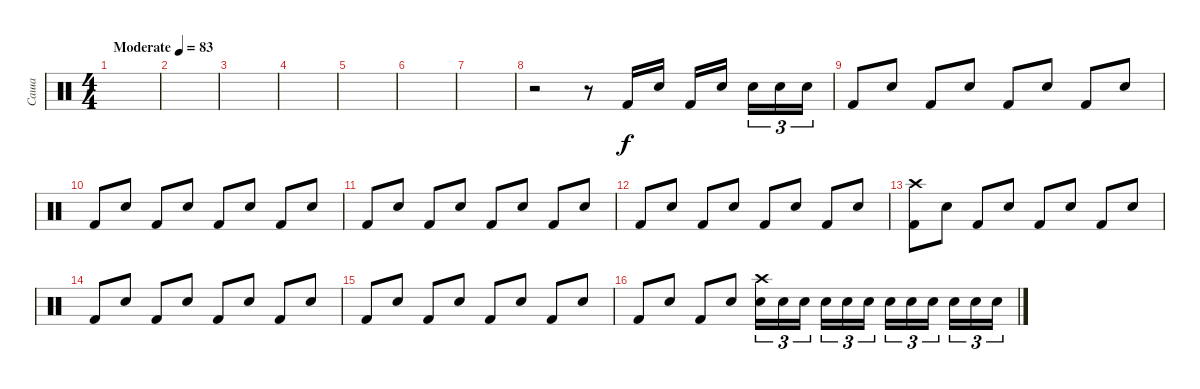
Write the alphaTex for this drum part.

\track ("Саша" "Саша") {instrument percussion}
\staff {score}
\articulation defaults
\ts (4 4)
\tempo (83 "Moderate")
\clef neutral
\ks c
|
|
|
|
|
|
|
r.2 r.8 "Kick (hit) 2".16 "Snare (hit) 2".16 "Kick (hit) 2".16 "Snare (hit) 2".16{beam splitsecondary} "Snare (hit) 2".16{tu (3 2)} "Snare (hit) 2".16{tu (3 2)} "Snare (hit) 2".16{tu (3 2)} |
"Kick (hit) 2".8 "Snare (hit) 2".8 "Kick (hit) 2".8 "Snare (hit) 2".8 "Kick (hit) 2".8 "Snare (hit) 2".8 "Kick (hit) 2".8 "Snare (hit) 2".8 |
"Kick (hit) 2".8 "Snare (hit) 2".8 "Kick (hit) 2".8 "Snare (hit) 2".8 "Kick (hit) 2".8 "Snare (hit) 2".8 "Kick (hit) 2".8 "Snare (hit) 2".8 |
"Kick (hit) 2".8 "Snare (hit) 2".8 "Kick (hit) 2".8 "Snare (hit) 2".8 "Kick (hit) 2".8 "Snare (hit) 2".8 "Kick (hit) 2".8 "Snare (hit) 2".8 |
"Kick (hit) 2".8 "Snare (hit) 2".8 "Kick (hit) 2".8 "Snare (hit) 2".8 "Kick (hit) 2".8 "Snare (hit) 2".8 "Kick (hit) 2".8 "Snare (hit) 2".8 |
("Kick (hit) 2" "Crash high (hit)").8 "Snare (hit) 2".8 "Kick (hit) 2".8 "Snare (hit) 2".8 "Kick (hit) 2".8 "Snare (hit) 2".8 "Kick (hit) 2".8 "Snare (hit) 2".8 |
"Kick (hit) 2".8 "Snare (hit) 2".8 "Kick (hit) 2".8 "Snare (hit) 2".8 "Kick (hit) 2".8 "Snare (hit) 2".8 "Kick (hit) 2".8 "Snare (hit) 2".8 |
"Kick (hit) 2".8 "Snare (hit) 2".8 "Kick (hit) 2".8 "Snare (hit) 2".8 "Kick (hit) 2".8 "Snare (hit) 2".8 "Kick (hit) 2".8 "Snare (hit) 2".8 |
"Kick (hit) 2".8 "Snare (hit) 2".8 "Kick (hit) 2".8 "Snare (hit) 2".8 ("Snare (hit) 2" "Crash high (hit)").16{tu (3 2)} "Snare (hit) 2".16{tu (3 2)} "Snare (hit) 2".16{tu (3 2) beam splitsecondary} "Snare (hit) 2".16{tu (3 2)} "Snare (hit) 2".16{tu (3 2)} "Snare (hit) 2".16{tu (3 2)} "Snare (hit) 2".16{tu (3 2)} "Snare (hit) 2".16{tu (3 2)} "Snare (hit) 2".16{tu (3 2) beam splitsecondary} "Snare (hit) 2".16{tu (3 2)} "Snare (hit) 2".16{tu (3 2)} "Snare (hit) 2".16{tu (3 2)}
